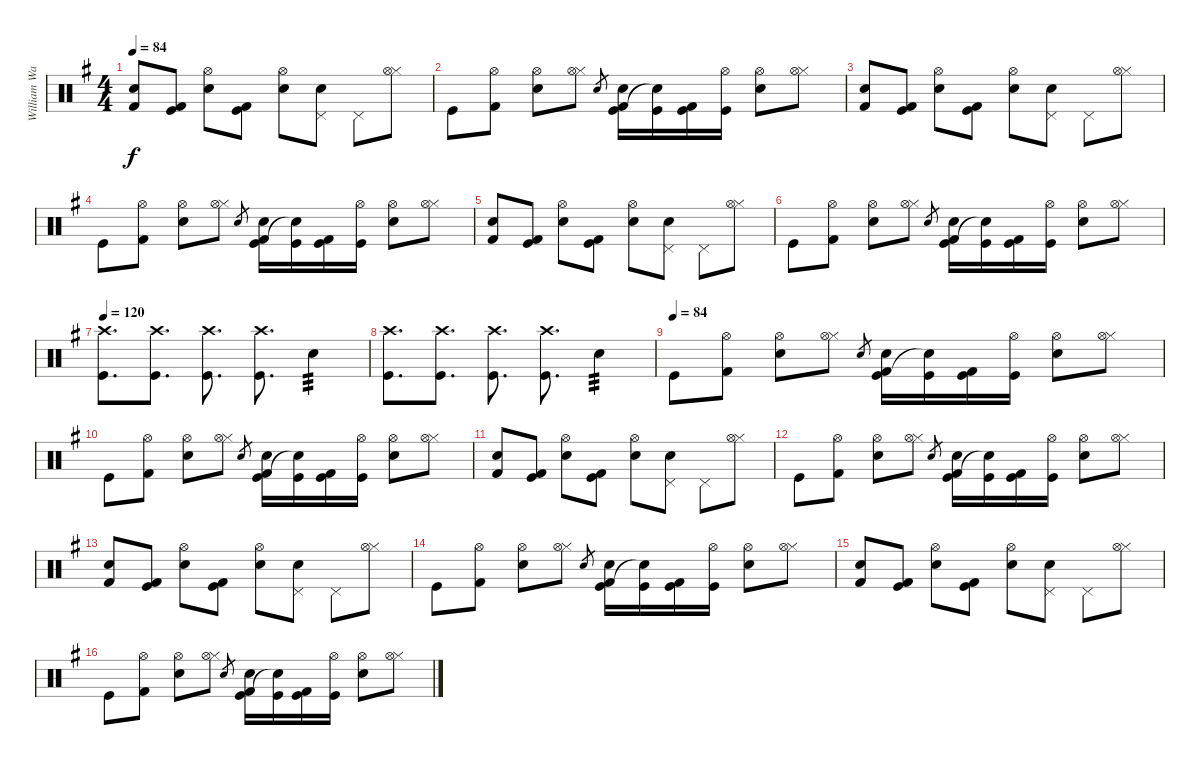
\track ("William Ward" "William Wa") {instrument percussion}
\staff {score}
\articulation defaults
\ts (4 4)
\tempo 84
\clef neutral
\ks g
("Kick (hit) 2" "Electric Snare (hit)").8{dy f} ("Kick (hit) 2" "Kick (hit)").8 ("Hi-Hat (open)" "Electric Snare (hit)").8 ("Kick (hit) 2" "Kick (hit)").8 ("Hi-Hat (open)" "Electric Snare (hit)").8 ("Pedal Hi-Hat (hit)" "Snare (hit) 2").8 "Pedal Hi-Hat (hit)".8 ("Hi-Hat (closed)" "Hi-Hat (open)").8 |
"Kick (hit)".8 ("Kick (hit) 2" "Hi-Hat (open)").8 ("Hi-Hat (open)" "Electric Snare (hit)").8 ("Hi-Hat (closed)" "Hi-Hat (open)").8 "Electric Snare (hit)".8{gr} ("Kick (hit) 2" "Kick (hit)" "Electric Snare (hit)").16 ("Kick (hit)" "Electric Snare (hit)"{t}).16 ("Kick (hit) 2" "Kick (hit)").16 ("Hi-Hat (open)" "Kick (hit)").16 ("Hi-Hat (open)" "Electric Snare (hit)").8 ("Hi-Hat (closed)" "Hi-Hat (open)").8 |
("Kick (hit) 2" "Electric Snare (hit)").8 ("Kick (hit) 2" "Kick (hit)").8 ("Hi-Hat (open)" "Electric Snare (hit)").8 ("Kick (hit) 2" "Kick (hit)").8 ("Hi-Hat (open)" "Electric Snare (hit)").8 ("Pedal Hi-Hat (hit)" "Snare (hit) 2").8 "Pedal Hi-Hat (hit)".8 ("Hi-Hat (closed)" "Hi-Hat (open)").8 |
"Kick (hit)".8 ("Kick (hit) 2" "Hi-Hat (open)").8 ("Hi-Hat (open)" "Electric Snare (hit)").8 ("Hi-Hat (closed)" "Hi-Hat (open)").8 "Electric Snare (hit)".8{gr} ("Kick (hit) 2" "Kick (hit)" "Electric Snare (hit)").16 ("Kick (hit)" "Electric Snare (hit)"{t}).16 ("Kick (hit) 2" "Kick (hit)").16 ("Hi-Hat (open)" "Kick (hit)").16 ("Hi-Hat (open)" "Electric Snare (hit)").8 ("Hi-Hat (closed)" "Hi-Hat (open)").8 |
("Kick (hit) 2" "Electric Snare (hit)").8 ("Kick (hit) 2" "Kick (hit)").8 ("Hi-Hat (open)" "Electric Snare (hit)").8 ("Kick (hit) 2" "Kick (hit)").8 ("Hi-Hat (open)" "Electric Snare (hit)").8 ("Pedal Hi-Hat (hit)" "Snare (hit) 2").8 "Pedal Hi-Hat (hit)".8 ("Hi-Hat (closed)" "Hi-Hat (open)").8 |
"Kick (hit)".8 ("Kick (hit) 2" "Hi-Hat (open)").8 ("Hi-Hat (open)" "Electric Snare (hit)").8 ("Hi-Hat (closed)" "Hi-Hat (open)").8 "Electric Snare (hit)".8{gr} ("Kick (hit) 2" "Kick (hit)" "Electric Snare (hit)").16 ("Kick (hit)" "Electric Snare (hit)"{t}).16 ("Kick (hit) 2" "Kick (hit)").16 ("Hi-Hat (open)" "Kick (hit)").16 ("Hi-Hat (open)" "Electric Snare (hit)").8 ("Hi-Hat (closed)" "Hi-Hat (open)").8 |
\tempo 120
("Kick (hit)" "Crash high (hit)").8{d} ("Kick (hit)" "Crash high (hit)").8{d} ("Kick (hit)" "Crash high (hit)").8{d} ("Kick (hit)" "Crash high (hit)").8{d} "Electric Snare (hit)".4{tp 3} |
("Kick (hit)" "Crash high (hit)").8{d} ("Kick (hit)" "Crash high (hit)").8{d} ("Kick (hit)" "Crash high (hit)").8{d} ("Kick (hit)" "Crash high (hit)").8{d} "Electric Snare (hit)".4{tp 3} |
\tempo (84)
"Kick (hit)".8 ("Kick (hit) 2" "Hi-Hat (open)").8 ("Hi-Hat (open)" "Electric Snare (hit)").8 ("Hi-Hat (closed)" "Hi-Hat (open)").8 "Electric Snare (hit)".8{gr} ("Kick (hit) 2" "Kick (hit)" "Electric Snare (hit)").16 ("Kick (hit)" "Electric Snare (hit)"{t}).16 ("Kick (hit) 2" "Kick (hit)").16 ("Hi-Hat (open)" "Kick (hit)").16 ("Hi-Hat (open)" "Electric Snare (hit)").8 ("Hi-Hat (closed)" "Hi-Hat (open)").8 |
"Kick (hit)".8 ("Kick (hit) 2" "Hi-Hat (open)").8 ("Hi-Hat (open)" "Electric Snare (hit)").8 ("Hi-Hat (closed)" "Hi-Hat (open)").8 "Electric Snare (hit)".8{gr} ("Kick (hit) 2" "Kick (hit)" "Electric Snare (hit)").16 ("Kick (hit)" "Electric Snare (hit)"{t}).16 ("Kick (hit) 2" "Kick (hit)").16 ("Hi-Hat (open)" "Kick (hit)").16 ("Hi-Hat (open)" "Electric Snare (hit)").8 ("Hi-Hat (closed)" "Hi-Hat (open)").8 |
("Kick (hit) 2" "Electric Snare (hit)").8 ("Kick (hit) 2" "Kick (hit)").8 ("Hi-Hat (open)" "Electric Snare (hit)").8 ("Kick (hit) 2" "Kick (hit)").8 ("Hi-Hat (open)" "Electric Snare (hit)").8 ("Pedal Hi-Hat (hit)" "Snare (hit) 2").8 "Pedal Hi-Hat (hit)".8 ("Hi-Hat (closed)" "Hi-Hat (open)").8 |
"Kick (hit)".8 ("Kick (hit) 2" "Hi-Hat (open)").8 ("Hi-Hat (open)" "Electric Snare (hit)").8 ("Hi-Hat (closed)" "Hi-Hat (open)").8 "Electric Snare (hit)".8{gr} ("Kick (hit) 2" "Kick (hit)" "Electric Snare (hit)").16 ("Kick (hit)" "Electric Snare (hit)"{t}).16 ("Kick (hit) 2" "Kick (hit)").16 ("Hi-Hat (open)" "Kick (hit)").16 ("Hi-Hat (open)" "Electric Snare (hit)").8 ("Hi-Hat (closed)" "Hi-Hat (open)").8 |
("Kick (hit) 2" "Electric Snare (hit)").8 ("Kick (hit) 2" "Kick (hit)").8 ("Hi-Hat (open)" "Electric Snare (hit)").8 ("Kick (hit) 2" "Kick (hit)").8 ("Hi-Hat (open)" "Electric Snare (hit)").8 ("Pedal Hi-Hat (hit)" "Snare (hit) 2").8 "Pedal Hi-Hat (hit)".8 ("Hi-Hat (closed)" "Hi-Hat (open)").8 |
"Kick (hit)".8 ("Kick (hit) 2" "Hi-Hat (open)").8 ("Hi-Hat (open)" "Electric Snare (hit)").8 ("Hi-Hat (closed)" "Hi-Hat (open)").8 "Electric Snare (hit)".8{gr} ("Kick (hit) 2" "Kick (hit)" "Electric Snare (hit)").16 ("Kick (hit)" "Electric Snare (hit)"{t}).16 ("Kick (hit) 2" "Kick (hit)").16 ("Hi-Hat (open)" "Kick (hit)").16 ("Hi-Hat (open)" "Electric Snare (hit)").8 ("Hi-Hat (closed)" "Hi-Hat (open)").8 |
("Kick (hit) 2" "Electric Snare (hit)").8 ("Kick (hit) 2" "Kick (hit)").8 ("Hi-Hat (open)" "Electric Snare (hit)").8 ("Kick (hit) 2" "Kick (hit)").8 ("Hi-Hat (open)" "Electric Snare (hit)").8 ("Pedal Hi-Hat (hit)" "Snare (hit) 2").8 "Pedal Hi-Hat (hit)".8 ("Hi-Hat (closed)" "Hi-Hat (open)").8 |
"Kick (hit)".8 ("Kick (hit) 2" "Hi-Hat (open)").8 ("Hi-Hat (open)" "Electric Snare (hit)").8 ("Hi-Hat (closed)" "Hi-Hat (open)").8 "Electric Snare (hit)".8{gr} ("Kick (hit) 2" "Kick (hit)" "Electric Snare (hit)").16 ("Kick (hit)" "Electric Snare (hit)"{t}).16 ("Kick (hit) 2" "Kick (hit)").16 ("Hi-Hat (open)" "Kick (hit)").16 ("Hi-Hat (open)" "Electric Snare (hit)").8 ("Hi-Hat (closed)" "Hi-Hat (open)").8
